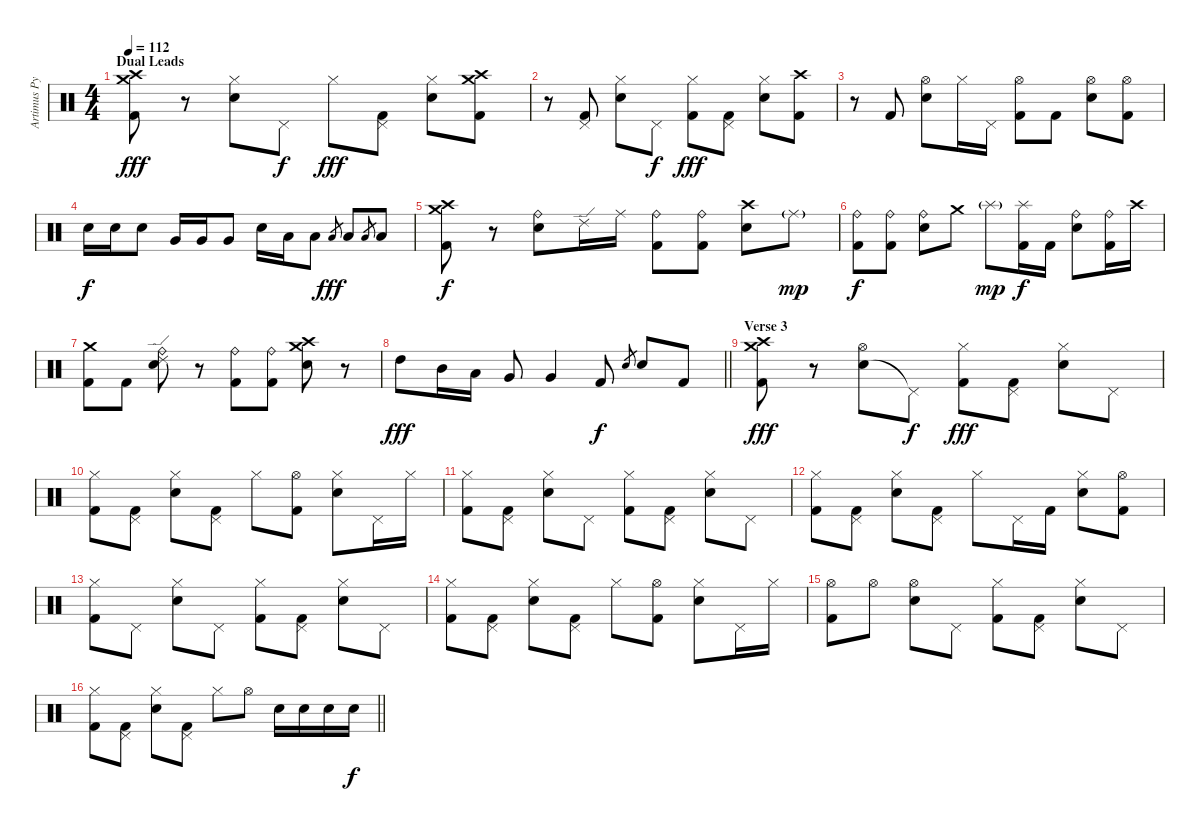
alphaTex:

\track ("Artimus Pyle" "Artimus Py") {instrument percussion}
\staff {score}
\articulation defaults
\ts (4 4)
\section ("" "Dual Leads")
\tempo 112
\clef neutral
\ks c
("Crash medium (hit)" "Crash high (hit)" "Kick (hit) 2").8{dy fff} r.8 ("Snare (hit) 2" "Hi-Hat (closed)").8 "Pedal Hi-Hat (hit)".8{dy f} "Hi-Hat (closed)".8{dy fff} ("Pedal Hi-Hat (hit)" "Kick (hit) 2").8 ("Snare (hit) 2" "Hi-Hat (closed)").8 ("Crash medium (hit)" "Crash high (hit)" "Kick (hit) 2").8 |
r.8 ("Pedal Hi-Hat (hit)" "Kick (hit) 2").8 ("Snare (hit) 2" "Hi-Hat (closed)").8 "Pedal Hi-Hat (hit)".8{dy f} ("Hi-Hat (closed)" "Kick (hit) 2").8{dy fff} ("Pedal Hi-Hat (hit)" "Kick (hit) 2").8 ("Snare (hit) 2" "Hi-Hat (closed)").8 ("Crash high (hit)" "Kick (hit) 2").8 |
r.8 "Kick (hit) 2".8 ("Snare (hit) 2" "Hi-Hat (open)").8 "Hi-Hat (closed)".16 "Pedal Hi-Hat (hit)".16 ("Hi-Hat (open)" "Kick (hit) 2").8 "Kick (hit) 2".8 ("Snare (hit) 2" "Hi-Hat (open)").8 ("Hi-Hat (open)" "Kick (hit) 2").8 |
"Snare (hit) 2".16{dy f} "Snare (hit) 2".16 "Snare (hit) 2".8 "Very Low Tom (hit)".16 "Very Low Tom (hit)".16 "Very Low Tom (hit)".8 "Snare (hit) 2".16 "Low Tom (hit)".16 "Low Tom (hit)".8 "Low Floor Tom (hit)".8{gr dy fff} "Low Floor Tom (hit)".8 "Low Floor Tom (hit)".8{gr} "Low Floor Tom (hit)".8 |
("Crash medium (hit)" "Crash high (hit)" "Kick (hit) 2").8{dy f} r.8 ("Ride (bell)" "Snare (hit) 2").8 "Ride (edge) 2".16 "Ride (middle)".16 ("Ride (bell)" "Kick (hit) 2").8 ("Ride (bell)" "Kick (hit) 2").8 ("Crash high (hit)" "Snare (hit) 2").8 "Ride (middle)"{g}.8{dy mp} |
("Ride (bell)" "Kick (hit) 2").8{dy f} ("Ride (bell)" "Kick (hit) 2").8 ("Ride (bell)" "Snare (hit) 2").8 "Crash medium (hit)".8 "Splash (hit)"{g}.8{dy mp} ("Splash (hit)" "Kick (hit) 2").16{dy f} "Kick (hit) 2".16 ("Ride (bell)" "Snare (hit) 2").8 ("Ride (bell)" "Kick (hit) 2").16 "Crash high (hit)".16 |
("Crash medium (hit)" "Kick (hit) 2").8 "Kick (hit) 2".8 ("Ride (bell)" "Ride (edge) 2" "Snare (hit) 2").8 r.8 ("Ride (bell)" "Kick (hit) 2").8 ("Ride (bell)" "Kick (hit) 2").8 ("Crash high (hit)" "Crash medium (hit)" "Snare (hit) 2").8 r.8 |
\barLineRight lightlight "High Tom (hit)".8{dy fff} "Mid Tom (hit)".16 "Low Tom (hit)".16 "Very Low Tom (hit)".8 "Very Low Tom (hit)".4 "Kick (hit) 2".8{dy f} "Snare (hit) 2".8{gr} "Snare (hit) 2".8 "Kick (hit) 2".8
|
\section ("" "Verse 3")
("Crash high (hit)" "Crash medium (hit)" "Kick (hit) 2").8{dy fff} r.8 ("Snare (hit) 2" "Hi-Hat (open)").8 "Pedal Hi-Hat (hit)"{t}.8{dy f} ("Hi-Hat (closed)" "Kick (hit) 2").8{dy fff} ("Pedal Hi-Hat (hit)" "Kick (hit) 2").8 ("Snare (hit) 2" "Hi-Hat (closed)").8 "Pedal Hi-Hat (hit)".8 |
("Hi-Hat (closed)" "Kick (hit) 2").8 ("Pedal Hi-Hat (hit)" "Kick (hit) 2").8 ("Snare (hit) 2" "Hi-Hat (closed)").8 ("Pedal Hi-Hat (hit)" "Kick (hit) 2").8 "Hi-Hat (closed)".8 ("Hi-Hat (open)" "Kick (hit) 2").8 ("Snare (hit) 2" "Hi-Hat (closed)").8 "Pedal Hi-Hat (hit)".16 "Hi-Hat (closed)".16 |
("Hi-Hat (closed)" "Kick (hit) 2").8 ("Pedal Hi-Hat (hit)" "Kick (hit) 2").8 ("Snare (hit) 2" "Hi-Hat (closed)").8 "Pedal Hi-Hat (hit)".8 ("Hi-Hat (closed)" "Kick (hit) 2").8 ("Pedal Hi-Hat (hit)" "Kick (hit) 2").8 ("Snare (hit) 2" "Hi-Hat (closed)").8 "Pedal Hi-Hat (hit)".8 |
("Hi-Hat (closed)" "Kick (hit) 2").8 ("Pedal Hi-Hat (hit)" "Kick (hit) 2").8 ("Snare (hit) 2" "Hi-Hat (closed)").8 ("Pedal Hi-Hat (hit)" "Kick (hit) 2").8 "Hi-Hat (closed)".8 "Pedal Hi-Hat (hit)".16 "Kick (hit) 2".16 ("Snare (hit) 2" "Hi-Hat (closed)").8 ("Hi-Hat (open)" "Kick (hit) 2").8 |
("Hi-Hat (closed)" "Kick (hit) 2").8 "Pedal Hi-Hat (hit)".8 ("Snare (hit) 2" "Hi-Hat (closed)").8 "Pedal Hi-Hat (hit)".8 ("Hi-Hat (closed)" "Kick (hit) 2").8 ("Pedal Hi-Hat (hit)" "Kick (hit) 2").8 ("Snare (hit) 2" "Hi-Hat (closed)").8 "Pedal Hi-Hat (hit)".8 |
("Hi-Hat (closed)" "Kick (hit) 2").8 ("Pedal Hi-Hat (hit)" "Kick (hit) 2").8 ("Snare (hit) 2" "Hi-Hat (closed)").8 ("Pedal Hi-Hat (hit)" "Kick (hit) 2").8 "Hi-Hat (closed)".8 ("Hi-Hat (open)" "Kick (hit) 2").8 ("Snare (hit) 2" "Hi-Hat (closed)").8 "Pedal Hi-Hat (hit)".16 "Hi-Hat (closed)".16 |
("Hi-Hat (open)" "Kick (hit) 2").8 "Hi-Hat (open)".8 ("Snare (hit) 2" "Hi-Hat (open)").8 "Pedal Hi-Hat (hit)".8 ("Hi-Hat (closed)" "Kick (hit) 2").8 ("Pedal Hi-Hat (hit)" "Kick (hit) 2").8 ("Snare (hit) 2" "Hi-Hat (closed)").8 "Pedal Hi-Hat (hit)".8 |
\barLineRight lightlight
("Hi-Hat (closed)" "Kick (hit) 2").8 ("Pedal Hi-Hat (hit)" "Kick (hit) 2").8 ("Snare (hit) 2" "Hi-Hat (closed)").8 ("Pedal Hi-Hat (hit)" "Kick (hit) 2").8 "Hi-Hat (closed)".8 "Hi-Hat (open)".8 "Snare (hit) 2".16 "Snare (hit) 2".16 "Snare (hit) 2".16 "Snare (hit) 2".16{dy f}
